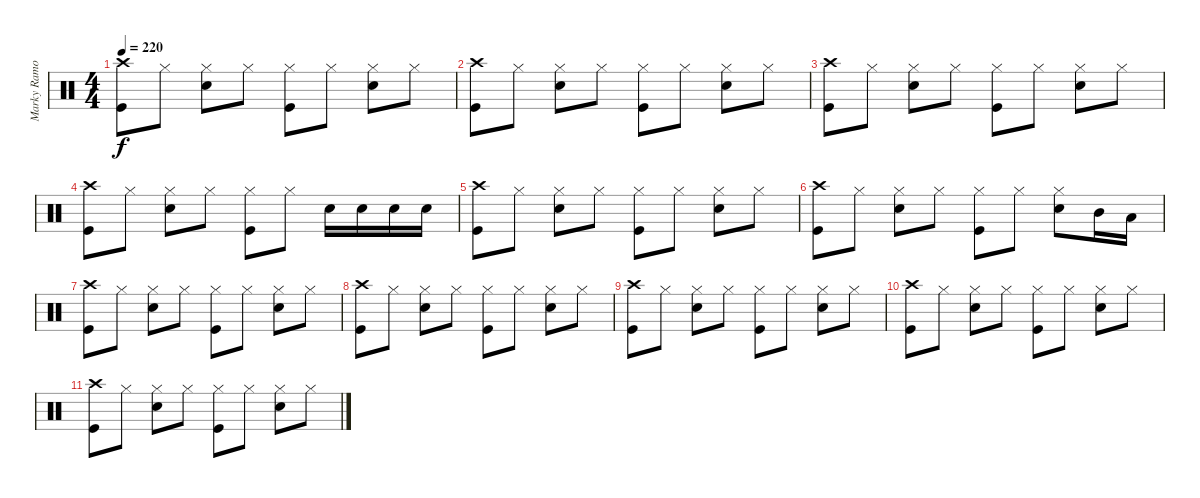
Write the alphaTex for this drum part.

\track ("Marky Ramone - Drums" "Marky Ramo") {instrument percussion}
\staff {score}
\articulation defaults
\ts (4 4)
\tempo 220
\clef neutral
\ks c
("Crash high (hit)" "Kick (hit)").8{dy f} "Hi-Hat (closed)".8 ("Hi-Hat (closed)" "Electric Snare (hit)").8 "Hi-Hat (closed)".8 ("Hi-Hat (closed)" "Kick (hit)").8 "Hi-Hat (closed)".8 ("Hi-Hat (closed)" "Electric Snare (hit)").8 "Hi-Hat (closed)".8 |
("Crash high (hit)" "Kick (hit)").8 "Hi-Hat (closed)".8 ("Hi-Hat (closed)" "Electric Snare (hit)").8 "Hi-Hat (closed)".8 ("Hi-Hat (closed)" "Kick (hit)").8 "Hi-Hat (closed)".8 ("Hi-Hat (closed)" "Electric Snare (hit)").8 "Hi-Hat (closed)".8 |
("Crash high (hit)" "Kick (hit)").8 "Hi-Hat (closed)".8 ("Hi-Hat (closed)" "Electric Snare (hit)").8 "Hi-Hat (closed)".8 ("Hi-Hat (closed)" "Kick (hit)").8 "Hi-Hat (closed)".8 ("Hi-Hat (closed)" "Electric Snare (hit)").8 "Hi-Hat (closed)".8 |
("Crash high (hit)" "Kick (hit)").8 "Hi-Hat (closed)".8 ("Hi-Hat (closed)" "Electric Snare (hit)").8 "Hi-Hat (closed)".8 ("Hi-Hat (closed)" "Kick (hit)").8 "Hi-Hat (closed)".8 "Electric Snare (hit)".16 "Electric Snare (hit)".16 "Electric Snare (hit)".16 "Electric Snare (hit)".16 |
("Crash high (hit)" "Kick (hit)").8 "Hi-Hat (closed)".8 ("Hi-Hat (closed)" "Electric Snare (hit)").8 "Hi-Hat (closed)".8 ("Hi-Hat (closed)" "Kick (hit)").8 "Hi-Hat (closed)".8 ("Hi-Hat (closed)" "Electric Snare (hit)").8 "Hi-Hat (closed)".8 |
("Crash high (hit)" "Kick (hit)").8 "Hi-Hat (closed)".8 ("Hi-Hat (closed)" "Electric Snare (hit)").8 "Hi-Hat (closed)".8 ("Hi-Hat (closed)" "Kick (hit)").8 "Hi-Hat (closed)".8 ("Hi-Hat (closed)" "Electric Snare (hit)").8 "Mid Tom (hit)".16 "Low Tom (hit)".16 |
("Crash high (hit)" "Kick (hit)").8 "Hi-Hat (closed)".8 ("Hi-Hat (closed)" "Electric Snare (hit)").8 "Hi-Hat (closed)".8 ("Hi-Hat (closed)" "Kick (hit)").8 "Hi-Hat (closed)".8 ("Hi-Hat (closed)" "Electric Snare (hit)").8 "Hi-Hat (closed)".8 |
("Crash high (hit)" "Kick (hit)").8 "Hi-Hat (closed)".8 ("Hi-Hat (closed)" "Electric Snare (hit)").8 "Hi-Hat (closed)".8 ("Hi-Hat (closed)" "Kick (hit)").8 "Hi-Hat (closed)".8 ("Hi-Hat (closed)" "Electric Snare (hit)").8 "Hi-Hat (closed)".8 |
("Crash high (hit)" "Kick (hit)").8 "Hi-Hat (closed)".8 ("Hi-Hat (closed)" "Electric Snare (hit)").8 "Hi-Hat (closed)".8 ("Hi-Hat (closed)" "Kick (hit)").8 "Hi-Hat (closed)".8 ("Hi-Hat (closed)" "Electric Snare (hit)").8 "Hi-Hat (closed)".8 |
("Crash high (hit)" "Kick (hit)").8 "Hi-Hat (closed)".8 ("Hi-Hat (closed)" "Electric Snare (hit)").8 "Hi-Hat (closed)".8 ("Hi-Hat (closed)" "Kick (hit)").8 "Hi-Hat (closed)".8 ("Hi-Hat (closed)" "Electric Snare (hit)").8 "Hi-Hat (closed)".8 |
("Crash high (hit)" "Kick (hit)").8 "Hi-Hat (closed)".8 ("Hi-Hat (closed)" "Electric Snare (hit)").8 "Hi-Hat (closed)".8 ("Hi-Hat (closed)" "Kick (hit)").8 "Hi-Hat (closed)".8 ("Hi-Hat (closed)" "Electric Snare (hit)").8 "Hi-Hat (closed)".8
